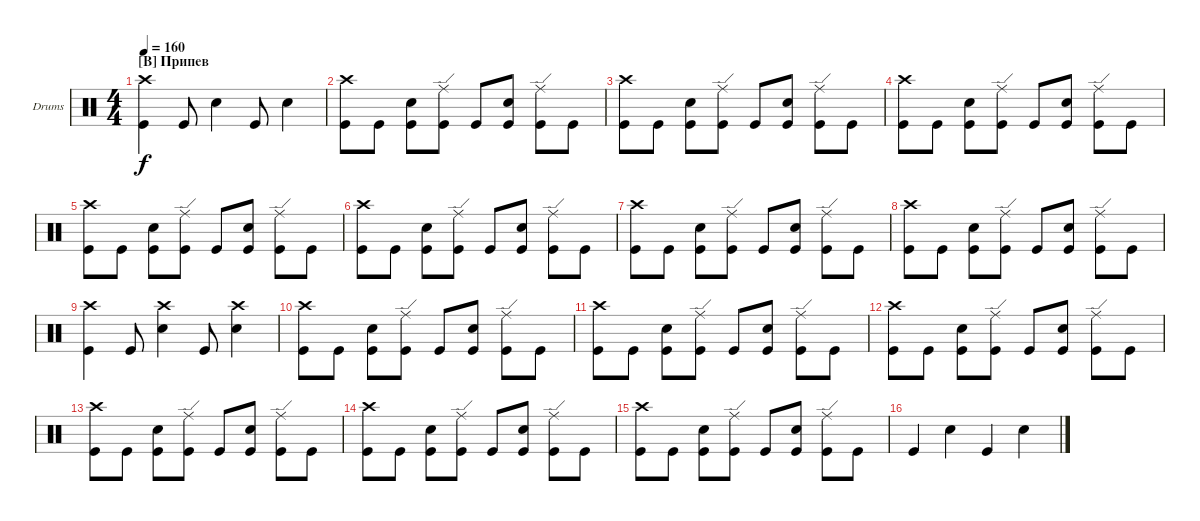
\defaultSystemsLayout 4
\bracketExtendMode groupsimilarinstruments
\firstSystemTrackNameOrientation horizontal
\otherSystemsTrackNameOrientation horizontal
\track ("Drumkit" "Drums") {instrument percussion}
\staff {score}
\articulation defaults
\ts (4 4)
\section ("B" "Припев")
\tempo 160
\clef neutral
\ks c
("Kick (hit)" "Crash high (hit)").4{dy f} "Kick (hit)".8 "Snare (hit) 2".4 "Kick (hit)".8 "Snare (hit) 2".4 |
("Kick (hit)" "Crash high (hit)").8 "Kick (hit)".8 ("Kick (hit)" "Snare (hit) 2").8 ("Kick (hit)" "Ride (edge)").8 "Kick (hit)".8 ("Kick (hit)" "Snare (hit) 2").8 ("Kick (hit)" "Ride (edge)").8 "Kick (hit)".8 |
("Kick (hit)" "Crash high (hit)").8 "Kick (hit)".8 ("Kick (hit)" "Snare (hit) 2").8 ("Kick (hit)" "Ride (edge)").8 "Kick (hit)".8 ("Kick (hit)" "Snare (hit) 2").8 ("Kick (hit)" "Ride (edge)").8 "Kick (hit)".8 |
("Kick (hit)" "Crash high (hit)").8 "Kick (hit)".8 ("Kick (hit)" "Snare (hit) 2").8 ("Kick (hit)" "Ride (edge)").8 "Kick (hit)".8 ("Kick (hit)" "Snare (hit) 2").8 ("Kick (hit)" "Ride (edge)").8 "Kick (hit)".8 |
("Kick (hit)" "Crash high (hit)").8 "Kick (hit)".8 ("Kick (hit)" "Snare (hit) 2").8 ("Kick (hit)" "Ride (edge)").8 "Kick (hit)".8 ("Kick (hit)" "Snare (hit) 2").8 ("Kick (hit)" "Ride (edge)").8 "Kick (hit)".8 |
("Kick (hit)" "Crash high (hit)").8 "Kick (hit)".8 ("Kick (hit)" "Snare (hit) 2").8 ("Kick (hit)" "Ride (edge)").8 "Kick (hit)".8 ("Kick (hit)" "Snare (hit) 2").8 ("Kick (hit)" "Ride (edge)").8 "Kick (hit)".8 |
("Kick (hit)" "Crash high (hit)").8 "Kick (hit)".8 ("Kick (hit)" "Snare (hit) 2").8 ("Kick (hit)" "Ride (edge)").8 "Kick (hit)".8 ("Kick (hit)" "Snare (hit) 2").8 ("Kick (hit)" "Ride (edge)").8 "Kick (hit)".8 |
("Kick (hit)" "Crash high (hit)").8 "Kick (hit)".8 ("Kick (hit)" "Snare (hit) 2").8 ("Kick (hit)" "Ride (edge)").8 "Kick (hit)".8 ("Kick (hit)" "Snare (hit) 2").8 ("Kick (hit)" "Ride (edge)").8 "Kick (hit)".8 |
("Kick (hit)" "Crash high (hit)").4 "Kick (hit)".8 ("Snare (hit) 2" "Crash high (hit)").4 "Kick (hit)".8 ("Snare (hit) 2" "Crash high (hit)").4 |
("Kick (hit)" "Crash high (hit)").8 "Kick (hit)".8 ("Kick (hit)" "Snare (hit) 2").8 ("Kick (hit)" "Ride (edge)").8 "Kick (hit)".8 ("Kick (hit)" "Snare (hit) 2").8 ("Kick (hit)" "Ride (edge)").8 "Kick (hit)".8 |
("Kick (hit)" "Crash high (hit)").8 "Kick (hit)".8 ("Kick (hit)" "Snare (hit) 2").8 ("Kick (hit)" "Ride (edge)").8 "Kick (hit)".8 ("Kick (hit)" "Snare (hit) 2").8 ("Kick (hit)" "Ride (edge)").8 "Kick (hit)".8 |
("Kick (hit)" "Crash high (hit)").8 "Kick (hit)".8 ("Kick (hit)" "Snare (hit) 2").8 ("Kick (hit)" "Ride (edge)").8 "Kick (hit)".8 ("Kick (hit)" "Snare (hit) 2").8 ("Kick (hit)" "Ride (edge)").8 "Kick (hit)".8 |
("Kick (hit)" "Crash high (hit)").8 "Kick (hit)".8 ("Kick (hit)" "Snare (hit) 2").8 ("Kick (hit)" "Ride (edge)").8 "Kick (hit)".8 ("Kick (hit)" "Snare (hit) 2").8 ("Kick (hit)" "Ride (edge)").8 "Kick (hit)".8 |
("Kick (hit)" "Crash high (hit)").8 "Kick (hit)".8 ("Kick (hit)" "Snare (hit) 2").8 ("Kick (hit)" "Ride (edge)").8 "Kick (hit)".8 ("Kick (hit)" "Snare (hit) 2").8 ("Kick (hit)" "Ride (edge)").8 "Kick (hit)".8 |
("Kick (hit)" "Crash high (hit)").8 "Kick (hit)".8 ("Kick (hit)" "Snare (hit) 2").8 ("Kick (hit)" "Ride (edge)").8 "Kick (hit)".8 ("Kick (hit)" "Snare (hit) 2").8 ("Kick (hit)" "Ride (edge)").8 "Kick (hit)".8 |
"Kick (hit)".4 "Snare (hit) 2".4 "Kick (hit)".4 "Snare (hit) 2".4
